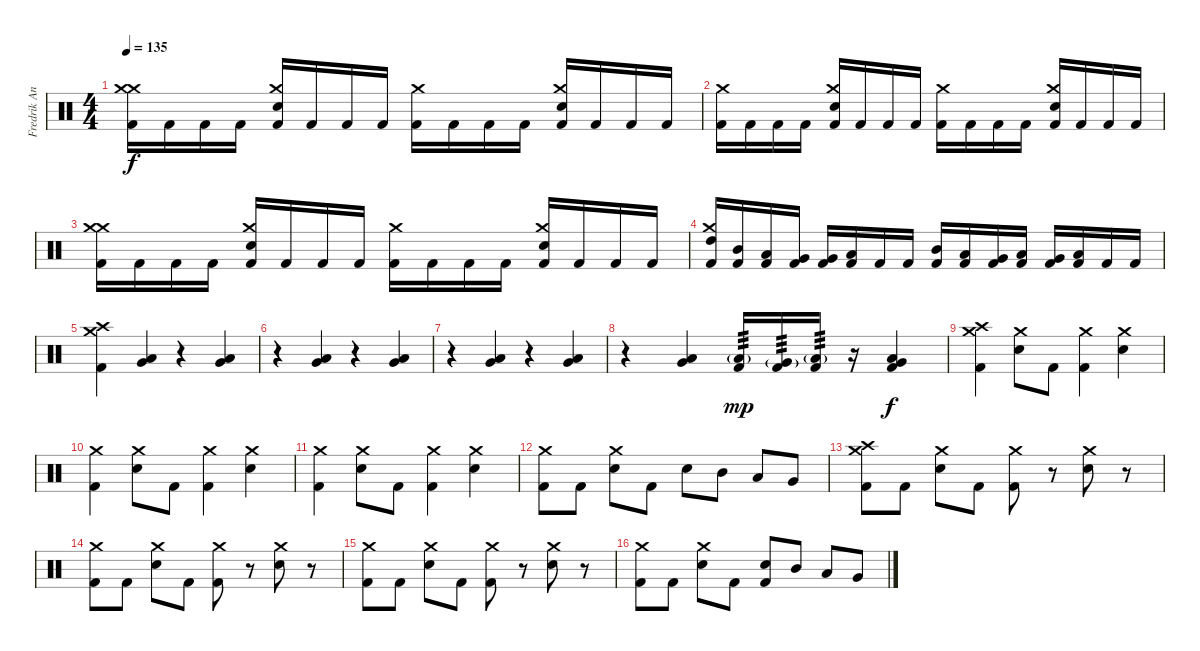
\track ("Fredrik Andersson" "Fredrik An") {instrument percussion}
\staff {score}
\articulation defaults
\ts (4 4)
\tempo 135
\clef neutral
\ks c
("Kick (hit) 2" "Crash medium (hit)" "Crash medium (hit)").16{dy f} "Kick (hit) 2".16 "Kick (hit) 2".16 "Kick (hit) 2".16 ("Kick (hit) 2" "Snare (hit) 2" "Crash medium (hit)").16 "Kick (hit) 2".16 "Kick (hit) 2".16 "Kick (hit) 2".16 ("Kick (hit) 2" "Crash medium (hit)").16 "Kick (hit) 2".16 "Kick (hit) 2".16 "Kick (hit) 2".16 ("Kick (hit) 2" "Snare (hit) 2" "Crash medium (hit)").16 "Kick (hit) 2".16 "Kick (hit) 2".16 "Kick (hit) 2".16 |
("Kick (hit) 2" "Crash medium (hit)").16 "Kick (hit) 2".16 "Kick (hit) 2".16 "Kick (hit) 2".16 ("Kick (hit) 2" "Snare (hit) 2" "Crash medium (hit)").16 "Kick (hit) 2".16 "Kick (hit) 2".16 "Kick (hit) 2".16 ("Kick (hit) 2" "Crash medium (hit)").16 "Kick (hit) 2".16 "Kick (hit) 2".16 "Kick (hit) 2".16 ("Kick (hit) 2" "Snare (hit) 2" "Crash medium (hit)").16 "Kick (hit) 2".16 "Kick (hit) 2".16 "Kick (hit) 2".16 |
("Kick (hit) 2" "Crash medium (hit)" "Crash medium (hit)").16 "Kick (hit) 2".16 "Kick (hit) 2".16 "Kick (hit) 2".16 ("Kick (hit) 2" "Snare (hit) 2" "Crash medium (hit)").16 "Kick (hit) 2".16 "Kick (hit) 2".16 "Kick (hit) 2".16 ("Kick (hit) 2" "Crash medium (hit)").16 "Kick (hit) 2".16 "Kick (hit) 2".16 "Kick (hit) 2".16 ("Kick (hit) 2" "Snare (hit) 2" "Crash medium (hit)").16 "Kick (hit) 2".16 "Kick (hit) 2".16 "Kick (hit) 2".16 |
("Kick (hit) 2" "High Tom (hit)" "Crash medium (hit)").16 ("Kick (hit) 2" "Mid Tom (hit)").16 ("Kick (hit) 2" "Low Tom (hit)").16 ("Kick (hit) 2" "Very Low Tom (hit)").16 ("Kick (hit) 2" "Very Low Tom (hit)").16 ("Kick (hit) 2" "Low Floor Tom (hit)").16 "Kick (hit) 2".16 "Kick (hit) 2".16 ("Kick (hit) 2" "Mid Tom (hit)").16 ("Kick (hit) 2" "Low Tom (hit)").16 ("Kick (hit) 2" "Very Low Tom (hit)").16 ("Kick (hit) 2" "Low Floor Tom (hit)").16 ("Kick (hit) 2" "Very Low Tom (hit)").16 ("Kick (hit) 2" "Low Floor Tom (hit)").16 "Kick (hit) 2".16 "Kick (hit) 2".16 |
("Kick (hit) 2" "Crash medium (hit)" "Crash high (hit)").4 ("Low Tom (hit)" "Very Low Tom (hit)").4 r.4 ("Low Tom (hit)" "Very Low Tom (hit)").4 |
r.4 ("Low Tom (hit)" "Very Low Tom (hit)").4 r.4 ("Low Tom (hit)" "Very Low Tom (hit)").4 |
r.4 ("Low Tom (hit)" "Very Low Tom (hit)").4 r.4 ("Low Tom (hit)" "Very Low Tom (hit)").4 |
r.4 ("Low Tom (hit)" "Very Low Tom (hit)").4 ("Kick (hit) 2" "Low Tom (hit)"{g}).16{tp 3 dy mp} ("Kick (hit) 2" "Very Low Tom (hit)"{g}).16{tp 3} ("Kick (hit) 2" "Low Floor Tom (hit)"{g}).16{tp 3} r.16 ("Kick (hit) 2" "Low Tom (hit)" "Very Low Tom (hit)").4{dy f} |
("Kick (hit) 2" "Crash medium (hit)" "Crash high (hit)").4 ("Snare (hit) 2" "Crash medium (hit)").8 "Kick (hit) 2".8 ("Kick (hit) 2" "Crash medium (hit)").4 ("Snare (hit) 2" "Crash medium (hit)").4 |
("Kick (hit) 2" "Crash medium (hit)").4 ("Snare (hit) 2" "Crash medium (hit)").8 "Kick (hit) 2".8 ("Kick (hit) 2" "Crash medium (hit)").4 ("Snare (hit) 2" "Crash medium (hit)").4 |
("Kick (hit) 2" "Crash medium (hit)").4 ("Snare (hit) 2" "Crash medium (hit)").8 "Kick (hit) 2".8 ("Kick (hit) 2" "Crash medium (hit)").4 ("Snare (hit) 2" "Crash medium (hit)").4 |
("Kick (hit) 2" "Crash medium (hit)").8 "Kick (hit) 2".8 ("Snare (hit) 2" "Crash medium (hit)").8 "Kick (hit) 2".8 "Snare (hit) 2".8 "Mid Tom (hit)".8 "Low Tom (hit)".8 "Very Low Tom (hit)".8 |
("Kick (hit) 2" "Crash medium (hit)" "Crash high (hit)").8 "Kick (hit) 2".8 ("Snare (hit) 2" "Crash medium (hit)").8 "Kick (hit) 2".8 ("Kick (hit) 2" "Crash medium (hit)").8 r.8 ("Snare (hit) 2" "Crash medium (hit)").8 r.8 |
("Kick (hit) 2" "Crash medium (hit)").8 "Kick (hit) 2".8 ("Snare (hit) 2" "Crash medium (hit)").8 "Kick (hit) 2".8 ("Kick (hit) 2" "Crash medium (hit)").8 r.8 ("Snare (hit) 2" "Crash medium (hit)").8 r.8 |
("Kick (hit) 2" "Crash medium (hit)").8 "Kick (hit) 2".8 ("Snare (hit) 2" "Crash medium (hit)").8 "Kick (hit) 2".8 ("Kick (hit) 2" "Crash medium (hit)").8 r.8 ("Snare (hit) 2" "Crash medium (hit)").8 r.8 |
("Kick (hit) 2" "Crash medium (hit)").8 "Kick (hit) 2".8 ("Snare (hit) 2" "Crash medium (hit)").8 "Kick (hit) 2".8 ("Kick (hit) 2" "Snare (hit) 2").8 "Mid Tom (hit)".8 "Low Tom (hit)".8 "Very Low Tom (hit)".8
